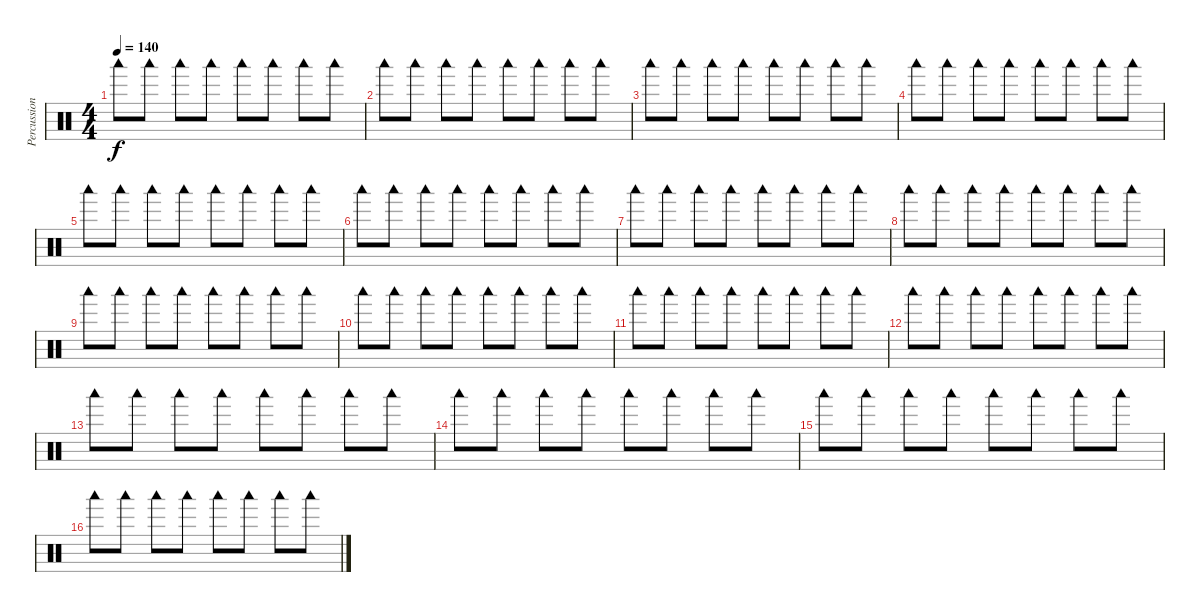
\track ("Percussioni" "Percussion") {mute instrument percussion}
\staff {score}
\articulation defaults
\ts (4 4)
\tempo 140
\clef neutral
\ks c "Woodblock low (hit)".8{dy f} "Woodblock low (hit)".8 "Woodblock low (hit)".8 "Woodblock low (hit)".8 "Woodblock low (hit)".8 "Woodblock low (hit)".8 "Woodblock low (hit)".8 "Woodblock low (hit)".8
|
"Woodblock low (hit)".8 "Woodblock low (hit)".8 "Woodblock low (hit)".8 "Woodblock low (hit)".8 "Woodblock low (hit)".8 "Woodblock low (hit)".8 "Woodblock low (hit)".8 "Woodblock low (hit)".8 |
"Woodblock low (hit)".8 "Woodblock low (hit)".8 "Woodblock low (hit)".8 "Woodblock low (hit)".8 "Woodblock low (hit)".8 "Woodblock low (hit)".8 "Woodblock low (hit)".8 "Woodblock low (hit)".8 |
"Woodblock low (hit)".8 "Woodblock low (hit)".8 "Woodblock low (hit)".8 "Woodblock low (hit)".8 "Woodblock low (hit)".8 "Woodblock low (hit)".8 "Woodblock low (hit)".8 "Woodblock low (hit)".8 |
"Woodblock low (hit)".8 "Woodblock low (hit)".8 "Woodblock low (hit)".8 "Woodblock low (hit)".8 "Woodblock low (hit)".8 "Woodblock low (hit)".8 "Woodblock low (hit)".8 "Woodblock low (hit)".8 |
"Woodblock low (hit)".8 "Woodblock low (hit)".8 "Woodblock low (hit)".8 "Woodblock low (hit)".8 "Woodblock low (hit)".8 "Woodblock low (hit)".8 "Woodblock low (hit)".8 "Woodblock low (hit)".8 |
"Woodblock low (hit)".8 "Woodblock low (hit)".8 "Woodblock low (hit)".8 "Woodblock low (hit)".8 "Woodblock low (hit)".8 "Woodblock low (hit)".8 "Woodblock low (hit)".8 "Woodblock low (hit)".8 |
"Woodblock low (hit)".8 "Woodblock low (hit)".8 "Woodblock low (hit)".8 "Woodblock low (hit)".8 "Woodblock low (hit)".8 "Woodblock low (hit)".8 "Woodblock low (hit)".8 "Woodblock low (hit)".8 |
"Woodblock low (hit)".8 "Woodblock low (hit)".8 "Woodblock low (hit)".8 "Woodblock low (hit)".8 "Woodblock low (hit)".8 "Woodblock low (hit)".8 "Woodblock low (hit)".8 "Woodblock low (hit)".8 |
"Woodblock low (hit)".8 "Woodblock low (hit)".8 "Woodblock low (hit)".8 "Woodblock low (hit)".8 "Woodblock low (hit)".8 "Woodblock low (hit)".8 "Woodblock low (hit)".8 "Woodblock low (hit)".8 |
"Woodblock low (hit)".8 "Woodblock low (hit)".8 "Woodblock low (hit)".8 "Woodblock low (hit)".8 "Woodblock low (hit)".8 "Woodblock low (hit)".8 "Woodblock low (hit)".8 "Woodblock low (hit)".8 |
"Woodblock low (hit)".8 "Woodblock low (hit)".8 "Woodblock low (hit)".8 "Woodblock low (hit)".8 "Woodblock low (hit)".8 "Woodblock low (hit)".8 "Woodblock low (hit)".8 "Woodblock low (hit)".8 |
"Woodblock low (hit)".8 "Woodblock low (hit)".8 "Woodblock low (hit)".8 "Woodblock low (hit)".8 "Woodblock low (hit)".8 "Woodblock low (hit)".8 "Woodblock low (hit)".8 "Woodblock low (hit)".8 |
"Woodblock low (hit)".8 "Woodblock low (hit)".8 "Woodblock low (hit)".8 "Woodblock low (hit)".8 "Woodblock low (hit)".8 "Woodblock low (hit)".8 "Woodblock low (hit)".8 "Woodblock low (hit)".8 |
"Woodblock low (hit)".8 "Woodblock low (hit)".8 "Woodblock low (hit)".8 "Woodblock low (hit)".8 "Woodblock low (hit)".8 "Woodblock low (hit)".8 "Woodblock low (hit)".8 "Woodblock low (hit)".8 |
"Woodblock low (hit)".8 "Woodblock low (hit)".8 "Woodblock low (hit)".8 "Woodblock low (hit)".8 "Woodblock low (hit)".8 "Woodblock low (hit)".8 "Woodblock low (hit)".8 "Woodblock low (hit)".8
